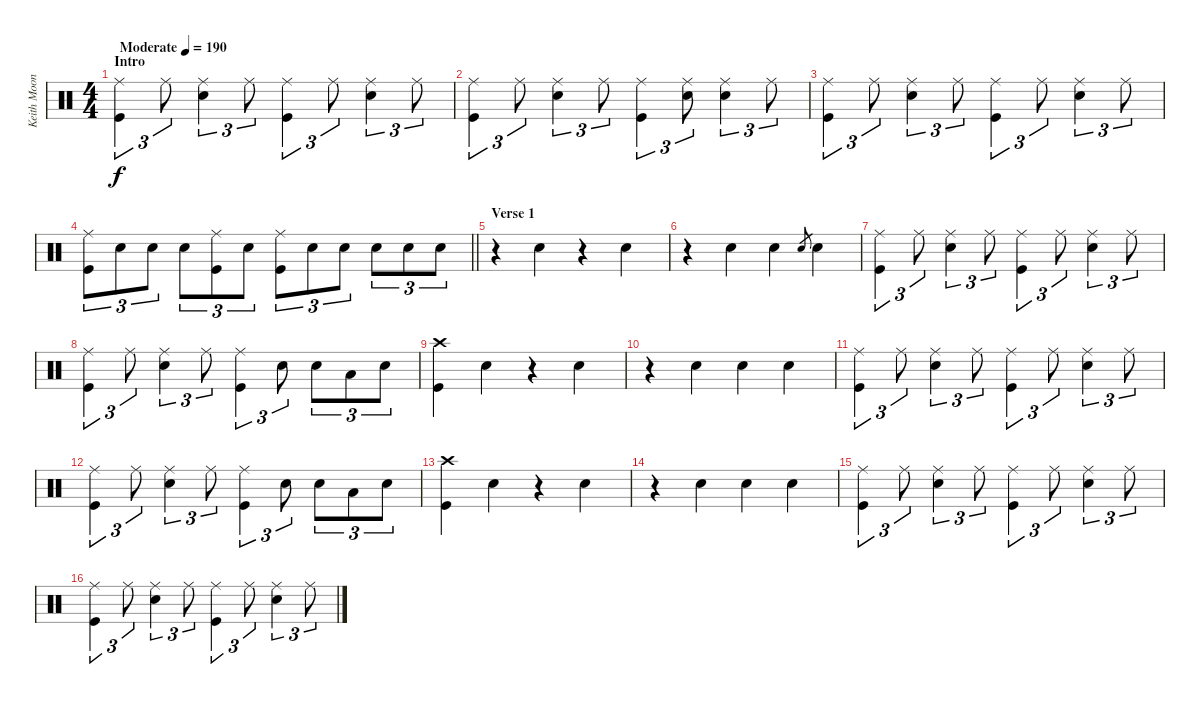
\track ("Keith Moon" "Keith Moon") {instrument percussion}
\staff {score}
\articulation defaults
\ts (4 4)
\section ("" "Intro")
\tempo (190 "Moderate")
\clef neutral
\ks c
("Ride (middle)" "Kick (hit)").4{tu (3 2) dy f} "Ride (middle)".8{tu (3 2)} ("Ride (middle)" "Snare (hit) 2").4{tu (3 2)} "Ride (middle)".8{tu (3 2)} ("Ride (middle)" "Kick (hit)").4{tu (3 2)} "Ride (middle)".8{tu (3 2)} ("Ride (middle)" "Snare (hit) 2").4{tu (3 2)} "Ride (middle)".8{tu (3 2)} |
("Ride (middle)" "Kick (hit)").4{tu (3 2)} "Ride (middle)".8{tu (3 2)} ("Ride (middle)" "Snare (hit) 2").4{tu (3 2)} "Ride (middle)".8{tu (3 2)} ("Ride (middle)" "Kick (hit)").4{tu (3 2)} ("Ride (middle)" "Snare (hit) 2").8{tu (3 2)} ("Ride (middle)" "Snare (hit) 2").4{tu (3 2)} "Ride (middle)".8{tu (3 2)} |
("Ride (middle)" "Kick (hit)").4{tu (3 2)} "Ride (middle)".8{tu (3 2)} ("Ride (middle)" "Snare (hit) 2").4{tu (3 2)} "Ride (middle)".8{tu (3 2)} ("Ride (middle)" "Kick (hit)").4{tu (3 2)} "Ride (middle)".8{tu (3 2)} ("Ride (middle)" "Snare (hit) 2").4{tu (3 2)} "Ride (middle)".8{tu (3 2)} |
\barLineRight lightlight
("Ride (middle)" "Kick (hit)").8{tu (3 2)} "Snare (hit) 2".8{tu (3 2)} "Snare (hit) 2".8{tu (3 2)} "Snare (hit) 2".8{tu (3 2)} ("Ride (middle)" "Kick (hit)").8{tu (3 2)} "Snare (hit) 2".8{tu (3 2)} ("Ride (middle)" "Kick (hit)").8{tu (3 2)} "Snare (hit) 2".8{tu (3 2)} "Snare (hit) 2".8{tu (3 2)} "Snare (hit) 2".8{tu (3 2)} "Snare (hit) 2".8{tu (3 2)} "Snare (hit) 2".8{tu (3 2)} |
\section ("" "Verse 1")
r.4 "Hand Clap (hit)".4 r.4 "Hand Clap (hit)".4 |
r.4 "Hand Clap (hit)".4 "Hand Clap (hit)".4 "Snare (hit) 2".8{gr} "Snare (hit) 2".4 |
("Ride (middle)" "Kick (hit)").4{tu (3 2)} "Ride (middle)".8{tu (3 2)} ("Ride (middle)" "Snare (hit) 2").4{tu (3 2)} "Ride (middle)".8{tu (3 2)} ("Ride (middle)" "Kick (hit)").4{tu (3 2)} "Ride (middle)".8{tu (3 2)} ("Ride (middle)" "Snare (hit) 2").4{tu (3 2)} "Ride (middle)".8{tu (3 2)} |
("Ride (middle)" "Kick (hit)").4{tu (3 2)} "Ride (middle)".8{tu (3 2)} ("Ride (middle)" "Snare (hit) 2").4{tu (3 2)} "Ride (middle)".8{tu (3 2)} ("Ride (middle)" "Kick (hit)").4{tu (3 2)} "Snare (hit) 2".8{tu (3 2)} "Snare (hit) 2".8{tu (3 2)} "Low Tom (hit)".8{tu (3 2)} "Snare (hit) 2".8{tu (3 2)} |
("Crash high (hit)" "Kick (hit)").4 "Hand Clap (hit)".4 r.4 "Hand Clap (hit)".4 |
r.4 "Hand Clap (hit)".4 "Hand Clap (hit)".4 "Snare (hit) 2".4 |
("Ride (middle)" "Kick (hit)").4{tu (3 2)} "Ride (middle)".8{tu (3 2)} ("Ride (middle)" "Snare (hit) 2").4{tu (3 2)} "Ride (middle)".8{tu (3 2)} ("Ride (middle)" "Kick (hit)").4{tu (3 2)} "Ride (middle)".8{tu (3 2)} ("Ride (middle)" "Snare (hit) 2").4{tu (3 2)} "Ride (middle)".8{tu (3 2)} |
("Ride (middle)" "Kick (hit)").4{tu (3 2)} "Ride (middle)".8{tu (3 2)} ("Ride (middle)" "Snare (hit) 2").4{tu (3 2)} "Ride (middle)".8{tu (3 2)} ("Ride (middle)" "Kick (hit)").4{tu (3 2)} "Snare (hit) 2".8{tu (3 2)} "Snare (hit) 2".8{tu (3 2)} "Low Tom (hit)".8{tu (3 2)} "Snare (hit) 2".8{tu (3 2)} |
("Crash high (hit)" "Kick (hit)").4 "Hand Clap (hit)".4 r.4 "Hand Clap (hit)".4 |
r.4 "Hand Clap (hit)".4 "Hand Clap (hit)".4 "Snare (hit) 2".4 |
("Ride (middle)" "Kick (hit)").4{tu (3 2)} "Ride (middle)".8{tu (3 2)} ("Ride (middle)" "Snare (hit) 2").4{tu (3 2)} "Ride (middle)".8{tu (3 2)} ("Ride (middle)" "Kick (hit)").4{tu (3 2)} "Ride (middle)".8{tu (3 2)} ("Ride (middle)" "Snare (hit) 2").4{tu (3 2)} "Ride (middle)".8{tu (3 2)} |
("Ride (middle)" "Kick (hit)").4{tu (3 2)} "Ride (middle)".8{tu (3 2)} ("Ride (middle)" "Snare (hit) 2").4{tu (3 2)} "Ride (middle)".8{tu (3 2)} ("Ride (middle)" "Kick (hit)").4{tu (3 2)} "Ride (middle)".8{tu (3 2)} ("Ride (middle)" "Snare (hit) 2").4{tu (3 2)} "Ride (middle)".8{tu (3 2)}
